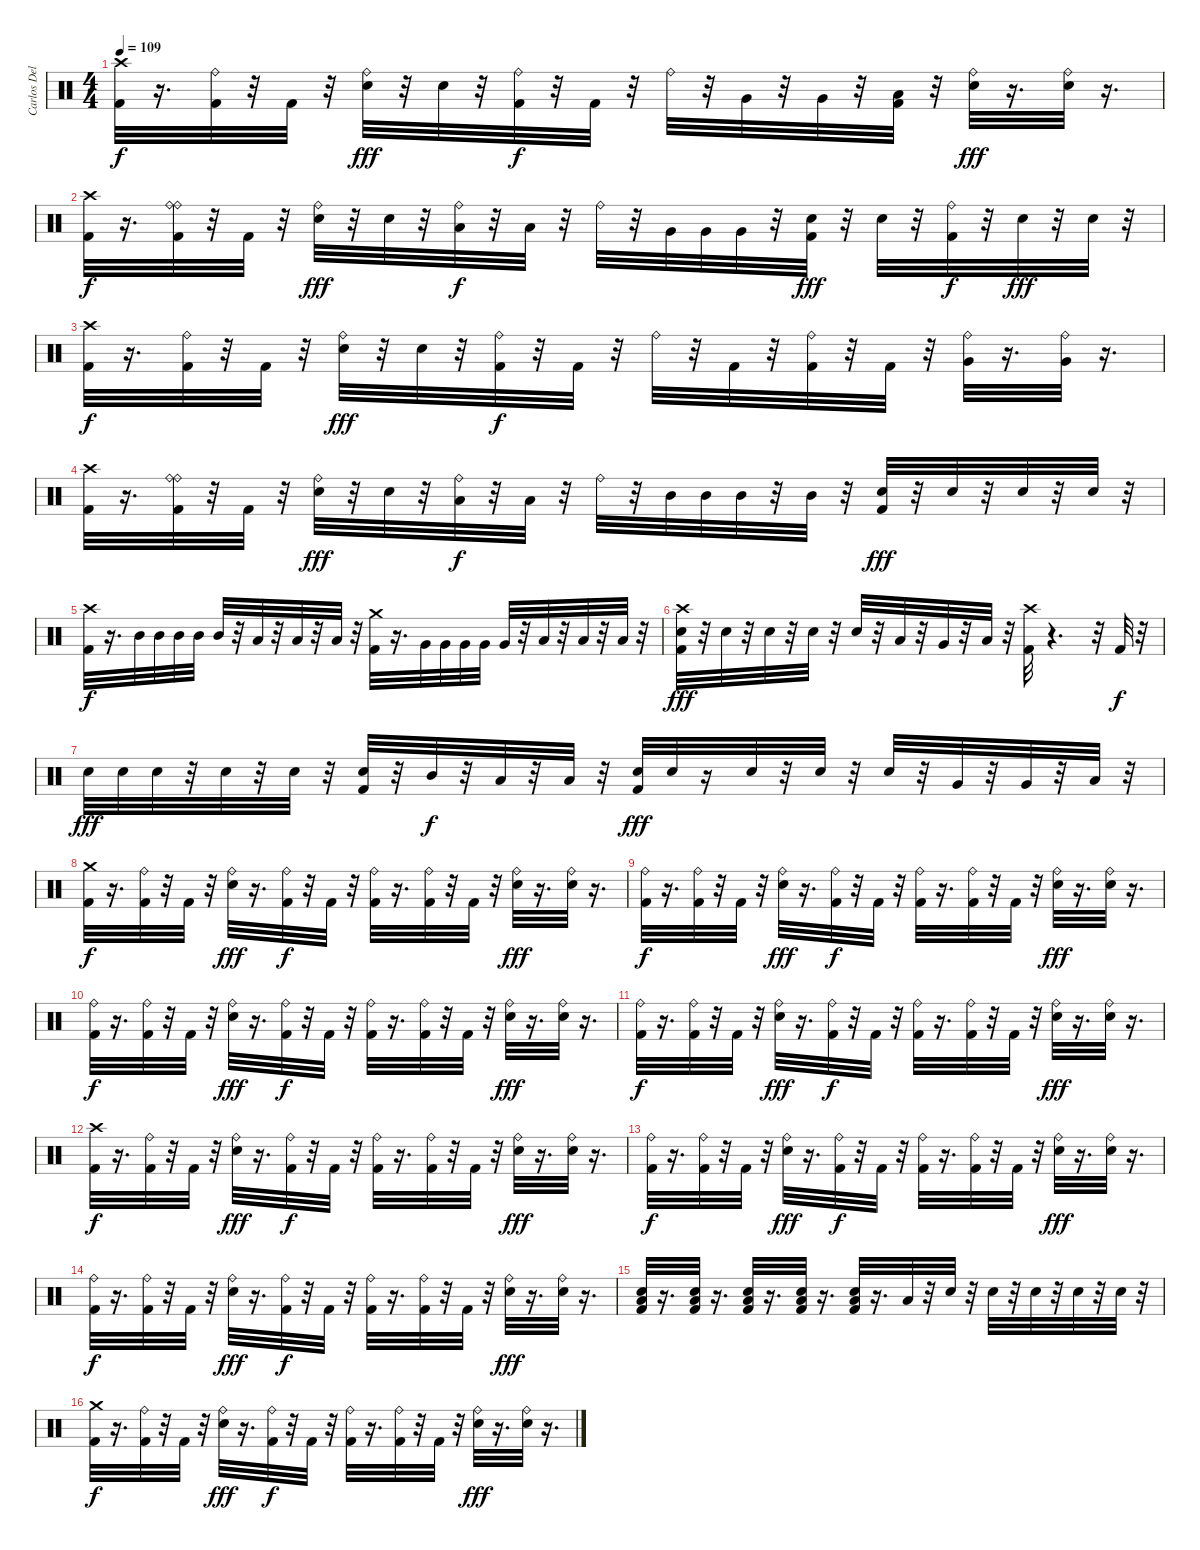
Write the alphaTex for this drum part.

\track ("Carlos Delgado" "Carlos Del") {instrument percussion}
\staff {score}
\articulation defaults
\ts (4 4)
\tempo 109
\clef neutral
\ks c
("Crash high (hit)" "Kick (hit) 2").32{dy f} r.16{d} ("Ride (bell)" "Kick (hit) 2").32 r.32 "Kick (hit) 2".32 r.32 ("Electric Snare (hit)" "Ride (bell)").32{dy fff} r.32 "Electric Snare (hit)".32 r.32 ("Kick (hit) 2" "Ride (bell)").32{dy f} r.32 "Kick (hit) 2".32 r.32 "Ride (bell)".32 r.32 "Very Low Tom (hit)".32 r.32 "Very Low Tom (hit)".32 r.32 ("Kick (hit) 2" "Low Floor Tom (hit)").32 r.32 ("Ride (bell)" "Electric Snare (hit)").32{dy fff} r.16{d} ("Electric Snare (hit)" "Ride (bell)").32 r.16{d} |
("Crash high (hit)" "Kick (hit) 2").32{dy f} r.16{d} ("Ride (bell)" "Ride (bell)" "Kick (hit) 2").32 r.32 "Kick (hit) 2".32 r.32 ("Electric Snare (hit)" "Ride (bell)").32{dy fff} r.32 "Electric Snare (hit)".32 r.32 ("Low Floor Tom (hit)" "Ride (bell)").32{dy f} r.32 "Low Floor Tom (hit)".32 r.32 "Ride (bell)".32 r.32 "Very Low Tom (hit)".32 "Very Low Tom (hit)".32 "Very Low Tom (hit)".32 r.32 ("Kick (hit) 2" "Electric Snare (hit)").32{dy fff} r.32 "Electric Snare (hit)".32 r.32 ("Kick (hit) 2" "Ride (bell)").32{dy f} r.32 "Electric Snare (hit)".32{dy fff} r.32 "Electric Snare (hit)".32 r.32 |
("Crash high (hit)" "Kick (hit) 2").32{dy f} r.16{d} ("Ride (bell)" "Kick (hit) 2").32 r.32 "Kick (hit) 2".32 r.32 ("Electric Snare (hit)" "Ride (bell)").32{dy fff} r.32 "Electric Snare (hit)".32 r.32 ("Kick (hit) 2" "Ride (bell)").32{dy f} r.32 "Kick (hit) 2".32 r.32 "Ride (bell)".32 r.32 "Kick (hit) 2".32 r.32 ("Kick (hit) 2" "Ride (bell)").32 r.32 "Kick (hit) 2".32 r.32 ("Ride (bell)" "Very Low Tom (hit)").32 r.16{d} ("Ride (bell)" "Very Low Tom (hit)").32 r.16{d} |
("Crash high (hit)" "Kick (hit) 2").32 r.16{d} ("Ride (bell)" "Ride (bell)" "Kick (hit) 2").32 r.32 "Kick (hit) 2".32 r.32 ("Electric Snare (hit)" "Ride (bell)").32{dy fff} r.32 "Electric Snare (hit)".32 r.32 ("Low Floor Tom (hit)" "Ride (bell)").32{dy f} r.32 "Low Floor Tom (hit)".32 r.32 "Ride (bell)".32 r.32 "Mid Tom (hit)".32 "Mid Tom (hit)".32 "Mid Tom (hit)".32 r.32 "Mid Tom (hit)".32 r.32 ("Electric Snare (hit)" "Kick (hit) 2").32{dy fff} r.32 "Electric Snare (hit)".32 r.32 "Electric Snare (hit)".32 r.32 "Electric Snare (hit)".32 r.32 |
("Crash high (hit)" "Kick (hit) 2").32{dy f} r.16{d} "Mid Tom (hit)".32 "Mid Tom (hit)".32 "Mid Tom (hit)".32 "Mid Tom (hit)".32 "Mid Tom (hit)".32 r.32 "Low Tom (hit)".32 r.32 "Low Tom (hit)".32 r.32 "Low Tom (hit)".32 r.32 ("Crash medium (hit)" "Kick (hit) 2").32 r.16{d} "Very Low Tom (hit)".32 "Very Low Tom (hit)".32 "Very Low Tom (hit)".32 "Very Low Tom (hit)".32 "Very Low Tom (hit)".32 r.32 "Low Floor Tom (hit)".32 r.32 "Low Floor Tom (hit)".32 r.32 "Low Floor Tom (hit)".32 r.32 |
("Electric Snare (hit)" "Crash high (hit)" "Kick (hit) 2").32{dy fff} r.32 "Electric Snare (hit)".32 r.32 "Electric Snare (hit)".32 r.32 "Electric Snare (hit)".32 r.32 "Electric Snare (hit)".32 r.32 "Low Tom (hit)".32 r.32 "Very Low Tom (hit)".32 r.32 "Low Floor Tom (hit)".32 r.32 ("Crash high (hit)" "Kick (hit) 2").32 r.4{d} r.32 "Kick (hit) 2".32{dy f} r.32 |
"Electric Snare (hit)".32{dy fff} "Electric Snare (hit)".32 "Electric Snare (hit)".32 r.32 "Electric Snare (hit)".32 r.32 "Electric Snare (hit)".32 r.32 ("Electric Snare (hit)" "Kick (hit) 2").32 r.32 "Mid Tom (hit)".32{dy f} r.32 "Low Tom (hit)".32 r.32 "Low Floor Tom (hit)".32 r.32 ("Electric Snare (hit)" "Kick (hit) 2").32{dy fff} "Electric Snare (hit)".32 r.16 "Electric Snare (hit)".32 r.32 "Electric Snare (hit)".32 r.32 "Electric Snare (hit)".32 r.32 "Very Low Tom (hit)".32 r.32 "Very Low Tom (hit)".32 r.32 "Low Floor Tom (hit)".32 r.32 |
("Crash medium (hit)" "Kick (hit) 2").32{dy f} r.16{d} ("Kick (hit) 2" "Ride (bell)").32 r.32 "Kick (hit) 2".32 r.32 ("Ride (bell)" "Electric Snare (hit)").32{dy fff} r.16{d} ("Kick (hit) 2" "Ride (bell)").32{dy f} r.32 "Kick (hit) 2".32 r.32 ("Kick (hit) 2" "Ride (bell)").32 r.16{d} ("Ride (bell)" "Kick (hit) 2").32 r.32 "Kick (hit) 2".32 r.32 ("Electric Snare (hit)" "Ride (bell)").32{dy fff} r.16{d} ("Electric Snare (hit)" "Ride (bell)").32 r.16{d} |
("Kick (hit) 2" "Ride (bell)").32{dy f} r.16{d} ("Ride (bell)" "Kick (hit) 2").32 r.32 "Kick (hit) 2".32 r.32 ("Ride (bell)" "Electric Snare (hit)").32{dy fff} r.16{d} ("Ride (bell)" "Kick (hit) 2").32{dy f} r.32 "Kick (hit) 2".32 r.32 ("Kick (hit) 2" "Ride (bell)").32 r.16{d} ("Ride (bell)" "Kick (hit) 2").32 r.32 "Kick (hit) 2".32 r.32 ("Ride (bell)" "Electric Snare (hit)").32{dy fff} r.16{d} ("Electric Snare (hit)" "Ride (bell)").32 r.16{d} |
("Ride (bell)" "Kick (hit) 2").32{dy f} r.16{d} ("Ride (bell)" "Kick (hit) 2").32 r.32 "Kick (hit) 2".32 r.32 ("Ride (bell)" "Electric Snare (hit)").32{dy fff} r.16{d} ("Kick (hit) 2" "Ride (bell)").32{dy f} r.32 "Kick (hit) 2".32 r.32 ("Kick (hit) 2" "Ride (bell)").32 r.16{d} ("Ride (bell)" "Kick (hit) 2").32 r.32 "Kick (hit) 2".32 r.32 ("Electric Snare (hit)" "Ride (bell)").32{dy fff} r.16{d} ("Ride (bell)" "Electric Snare (hit)").32 r.16{d} |
("Ride (bell)" "Kick (hit) 2").32{dy f} r.16{d} ("Ride (bell)" "Kick (hit) 2").32 r.32 "Kick (hit) 2".32 r.32 ("Electric Snare (hit)" "Ride (bell)").32{dy fff} r.16{d} ("Kick (hit) 2" "Ride (bell)").32{dy f} r.32 "Kick (hit) 2".32 r.32 ("Kick (hit) 2" "Ride (bell)").32 r.16{d} ("Ride (bell)" "Kick (hit) 2").32 r.32 "Kick (hit) 2".32 r.32 ("Ride (bell)" "Electric Snare (hit)").32{dy fff} r.16{d} ("Ride (bell)" "Electric Snare (hit)").32 r.16{d} |
("Kick (hit) 2" "Crash high (hit)").32{dy f} r.16{d} ("Ride (bell)" "Kick (hit) 2").32 r.32 "Kick (hit) 2".32 r.32 ("Ride (bell)" "Electric Snare (hit)").32{dy fff} r.16{d} ("Kick (hit) 2" "Ride (bell)").32{dy f} r.32 "Kick (hit) 2".32 r.32 ("Ride (bell)" "Kick (hit) 2").32 r.16{d} ("Kick (hit) 2" "Ride (bell)").32 r.32 "Kick (hit) 2".32 r.32 ("Ride (bell)" "Electric Snare (hit)").32{dy fff} r.16{d} ("Ride (bell)" "Electric Snare (hit)").32 r.16{d} |
("Ride (bell)" "Kick (hit) 2").32{dy f} r.16{d} ("Ride (bell)" "Kick (hit) 2").32 r.32 "Kick (hit) 2".32 r.32 ("Ride (bell)" "Electric Snare (hit)").32{dy fff} r.16{d} ("Kick (hit) 2" "Ride (bell)").32{dy f} r.32 "Kick (hit) 2".32 r.32 ("Ride (bell)" "Kick (hit) 2").32 r.16{d} ("Ride (bell)" "Kick (hit) 2").32 r.32 "Kick (hit) 2".32 r.32 ("Electric Snare (hit)" "Ride (bell)").32{dy fff} r.16{d} ("Electric Snare (hit)" "Ride (bell)").32 r.16{d} |
("Kick (hit) 2" "Ride (bell)").32{dy f} r.16{d} ("Ride (bell)" "Kick (hit) 2").32 r.32 "Kick (hit) 2".32 r.32 ("Electric Snare (hit)" "Ride (bell)").32{dy fff} r.16{d} ("Ride (bell)" "Kick (hit) 2").32{dy f} r.32 "Kick (hit) 2".32 r.32 ("Ride (bell)" "Kick (hit) 2").32 r.16{d} ("Kick (hit) 2" "Ride (bell)").32 r.32 "Kick (hit) 2".32 r.32 ("Ride (bell)" "Electric Snare (hit)").32{dy fff} r.16{d} ("Ride (bell)" "Electric Snare (hit)").32 r.16{d} |
("Kick (hit) 2" "Low Floor Tom (hit)" "Electric Snare (hit)").32 r.16{d} ("Low Floor Tom (hit)" "Electric Snare (hit)" "Kick (hit) 2").32 r.16{d} ("Low Floor Tom (hit)" "Kick (hit) 2" "Electric Snare (hit)").32 r.16{d} ("Low Floor Tom (hit)" "Kick (hit) 2" "Electric Snare (hit)").32 r.16{d} ("Low Floor Tom (hit)" "Kick (hit) 2" "Electric Snare (hit)").32 r.16{d} "Low Floor Tom (hit)".32 r.32 "Electric Snare (hit)".32 r.32 "Electric Snare (hit)".32 r.32 "Electric Snare (hit)".32 r.32 "Electric Snare (hit)".32 r.32 "Electric Snare (hit)".32 r.32 |
("Crash medium (hit)" "Kick (hit) 2").32{dy f} r.16{d} ("Kick (hit) 2" "Ride (bell)").32 r.32 "Kick (hit) 2".32 r.32 ("Ride (bell)" "Electric Snare (hit)").32{dy fff} r.16{d} ("Kick (hit) 2" "Ride (bell)").32{dy f} r.32 "Kick (hit) 2".32 r.32 ("Kick (hit) 2" "Ride (bell)").32 r.16{d} ("Ride (bell)" "Kick (hit) 2").32 r.32 "Kick (hit) 2".32 r.32 ("Electric Snare (hit)" "Ride (bell)").32{dy fff} r.16{d} ("Electric Snare (hit)" "Ride (bell)").32 r.16{d}
